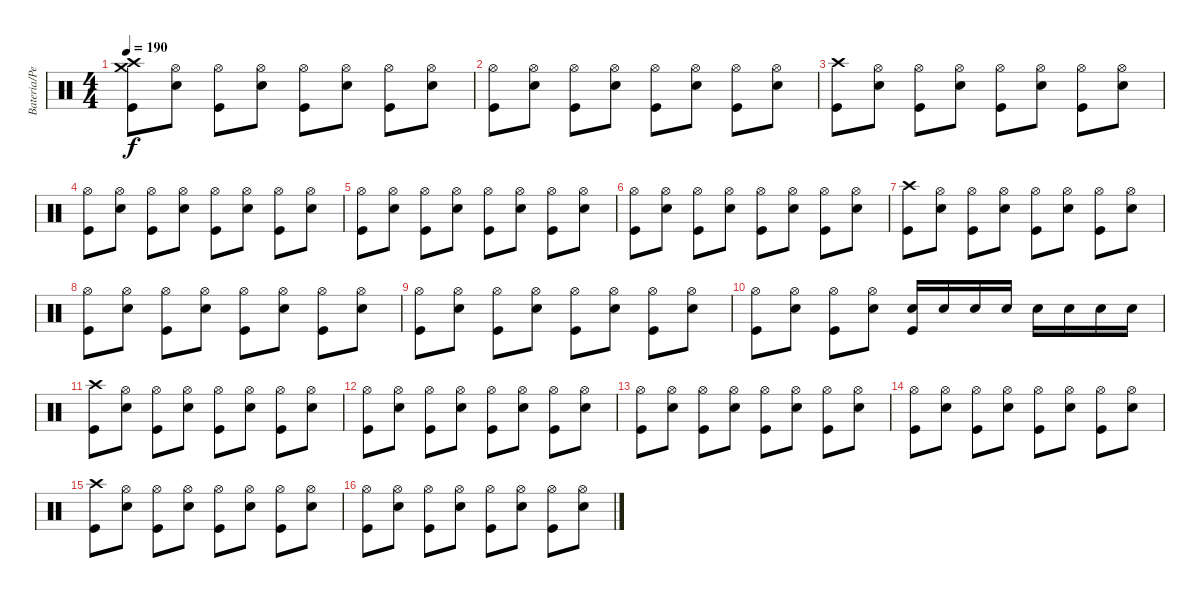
\track ("Bateria/Percussion" "Bateria/Pe") {instrument percussion}
\staff {score}
\articulation defaults
\ts (4 4)
\tempo 190
\clef neutral
\ks c
("Crash high (hit)" "Crash medium (hit)" "Kick (hit)").8{dy f} ("Hi-Hat (open)" "Snare (hit) 2").8 ("Hi-Hat (open)" "Kick (hit)").8 ("Hi-Hat (open)" "Snare (hit) 2").8 ("Hi-Hat (open)" "Kick (hit)").8 ("Hi-Hat (open)" "Snare (hit) 2").8 ("Hi-Hat (open)" "Kick (hit)").8 ("Hi-Hat (open)" "Snare (hit) 2").8 |
("Hi-Hat (open)" "Kick (hit)").8 ("Hi-Hat (open)" "Snare (hit) 2").8 ("Hi-Hat (open)" "Kick (hit)").8 ("Hi-Hat (open)" "Snare (hit) 2").8 ("Hi-Hat (open)" "Kick (hit)").8 ("Hi-Hat (open)" "Snare (hit) 2").8 ("Hi-Hat (open)" "Kick (hit)").8 ("Hi-Hat (open)" "Snare (hit) 2").8 |
("Crash high (hit)" "Kick (hit)").8 ("Hi-Hat (open)" "Snare (hit) 2").8 ("Hi-Hat (open)" "Kick (hit)").8 ("Hi-Hat (open)" "Snare (hit) 2").8 ("Hi-Hat (open)" "Kick (hit)").8 ("Hi-Hat (open)" "Snare (hit) 2").8 ("Hi-Hat (open)" "Kick (hit)").8 ("Hi-Hat (open)" "Snare (hit) 2").8 |
("Hi-Hat (open)" "Kick (hit)").8 ("Hi-Hat (open)" "Snare (hit) 2").8 ("Hi-Hat (open)" "Kick (hit)").8 ("Hi-Hat (open)" "Snare (hit) 2").8 ("Hi-Hat (open)" "Kick (hit)").8 ("Hi-Hat (open)" "Snare (hit) 2").8 ("Hi-Hat (open)" "Kick (hit)").8 ("Hi-Hat (open)" "Snare (hit) 2").8 |
("Hi-Hat (open)" "Kick (hit)").8 ("Hi-Hat (open)" "Snare (hit) 2").8 ("Hi-Hat (open)" "Kick (hit)").8 ("Hi-Hat (open)" "Snare (hit) 2").8 ("Hi-Hat (open)" "Kick (hit)").8 ("Hi-Hat (open)" "Snare (hit) 2").8 ("Hi-Hat (open)" "Kick (hit)").8 ("Hi-Hat (open)" "Snare (hit) 2").8 |
("Hi-Hat (open)" "Kick (hit)").8 ("Hi-Hat (open)" "Snare (hit) 2").8 ("Hi-Hat (open)" "Kick (hit)").8 ("Hi-Hat (open)" "Snare (hit) 2").8 ("Hi-Hat (open)" "Kick (hit)").8 ("Hi-Hat (open)" "Snare (hit) 2").8 ("Hi-Hat (open)" "Kick (hit)").8 ("Hi-Hat (open)" "Snare (hit) 2").8 |
("Crash high (hit)" "Kick (hit)").8 ("Hi-Hat (open)" "Snare (hit) 2").8 ("Hi-Hat (open)" "Kick (hit)").8 ("Hi-Hat (open)" "Snare (hit) 2").8 ("Hi-Hat (open)" "Kick (hit)").8 ("Hi-Hat (open)" "Snare (hit) 2").8 ("Hi-Hat (open)" "Kick (hit)").8 ("Hi-Hat (open)" "Snare (hit) 2").8 |
("Hi-Hat (open)" "Kick (hit)").8 ("Hi-Hat (open)" "Snare (hit) 2").8 ("Hi-Hat (open)" "Kick (hit)").8 ("Hi-Hat (open)" "Snare (hit) 2").8 ("Hi-Hat (open)" "Kick (hit)").8 ("Hi-Hat (open)" "Snare (hit) 2").8 ("Hi-Hat (open)" "Kick (hit)").8 ("Hi-Hat (open)" "Snare (hit) 2").8 |
("Hi-Hat (open)" "Kick (hit)").8 ("Hi-Hat (open)" "Snare (hit) 2").8 ("Hi-Hat (open)" "Kick (hit)").8 ("Hi-Hat (open)" "Snare (hit) 2").8 ("Hi-Hat (open)" "Kick (hit)").8 ("Hi-Hat (open)" "Snare (hit) 2").8 ("Hi-Hat (open)" "Kick (hit)").8 ("Hi-Hat (open)" "Snare (hit) 2").8 |
("Hi-Hat (open)" "Kick (hit)").8 ("Hi-Hat (open)" "Snare (hit) 2").8 ("Hi-Hat (open)" "Kick (hit)").8 ("Hi-Hat (open)" "Snare (hit) 2").8 ("Snare (hit) 2" "Kick (hit)").16 "Snare (hit) 2".16 "Snare (hit) 2".16 "Snare (hit) 2".16 "Snare (hit) 2".16 "Snare (hit) 2".16 "Snare (hit) 2".16 "Snare (hit) 2".16 |
("Crash high (hit)" "Kick (hit)").8 ("Hi-Hat (open)" "Snare (hit) 2").8 ("Hi-Hat (open)" "Kick (hit)").8 ("Hi-Hat (open)" "Snare (hit) 2").8 ("Hi-Hat (open)" "Kick (hit)").8 ("Hi-Hat (open)" "Snare (hit) 2").8 ("Hi-Hat (open)" "Kick (hit)").8 ("Hi-Hat (open)" "Snare (hit) 2").8 |
("Hi-Hat (open)" "Kick (hit)").8 ("Hi-Hat (open)" "Snare (hit) 2").8 ("Hi-Hat (open)" "Kick (hit)").8 ("Hi-Hat (open)" "Snare (hit) 2").8 ("Hi-Hat (open)" "Kick (hit)").8 ("Hi-Hat (open)" "Snare (hit) 2").8 ("Hi-Hat (open)" "Kick (hit)").8 ("Hi-Hat (open)" "Snare (hit) 2").8 |
("Hi-Hat (open)" "Kick (hit)").8 ("Hi-Hat (open)" "Snare (hit) 2").8 ("Hi-Hat (open)" "Kick (hit)").8 ("Hi-Hat (open)" "Snare (hit) 2").8 ("Hi-Hat (open)" "Kick (hit)").8 ("Hi-Hat (open)" "Snare (hit) 2").8 ("Hi-Hat (open)" "Kick (hit)").8 ("Hi-Hat (open)" "Snare (hit) 2").8 |
("Hi-Hat (open)" "Kick (hit)").8 ("Hi-Hat (open)" "Snare (hit) 2").8 ("Hi-Hat (open)" "Kick (hit)").8 ("Hi-Hat (open)" "Snare (hit) 2").8 ("Hi-Hat (open)" "Kick (hit)").8 ("Hi-Hat (open)" "Snare (hit) 2").8 ("Hi-Hat (open)" "Kick (hit)").8 ("Hi-Hat (open)" "Snare (hit) 2").8 |
("Crash high (hit)" "Kick (hit)").8 ("Hi-Hat (open)" "Snare (hit) 2").8 ("Hi-Hat (open)" "Kick (hit)").8 ("Hi-Hat (open)" "Snare (hit) 2").8 ("Hi-Hat (open)" "Kick (hit)").8 ("Hi-Hat (open)" "Snare (hit) 2").8 ("Hi-Hat (open)" "Kick (hit)").8 ("Hi-Hat (open)" "Snare (hit) 2").8 |
("Hi-Hat (open)" "Kick (hit)").8 ("Hi-Hat (open)" "Snare (hit) 2").8 ("Hi-Hat (open)" "Kick (hit)").8 ("Hi-Hat (open)" "Snare (hit) 2").8 ("Hi-Hat (open)" "Kick (hit)").8 ("Hi-Hat (open)" "Snare (hit) 2").8 ("Hi-Hat (open)" "Kick (hit)").8 ("Hi-Hat (open)" "Snare (hit) 2").8
